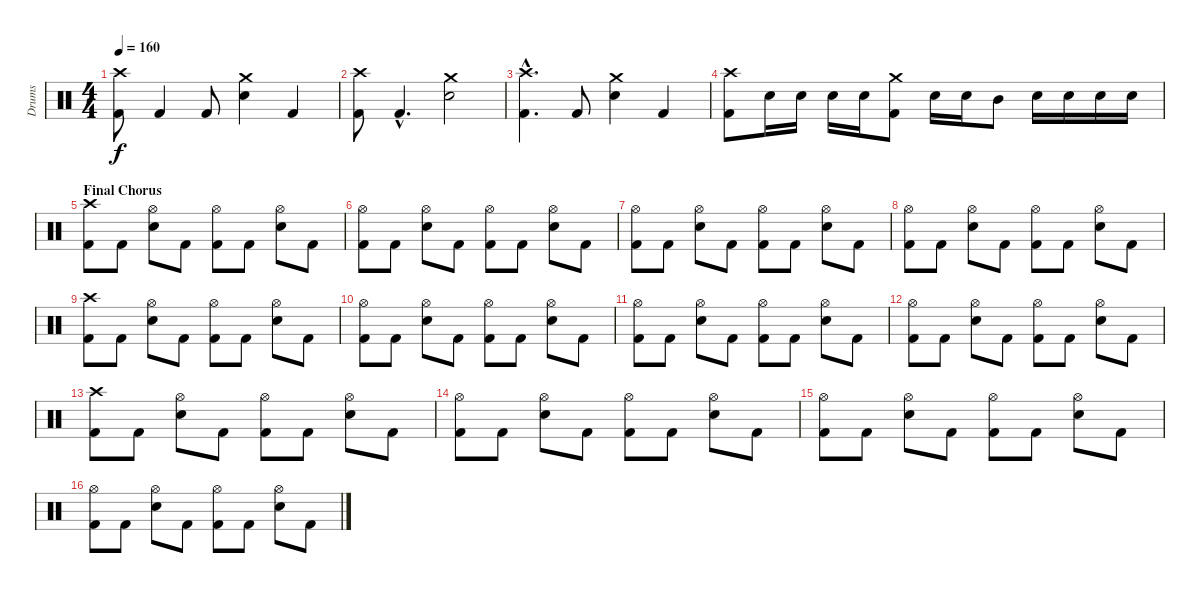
\track ("Drums" "Drums") {instrument percussion}
\staff {score}
\articulation defaults
\ts (4 4)
\tempo 160
\clef neutral
\ks c
("Kick (hit) 2" "Crash high (hit)").8{dy f} "Kick (hit) 2".4 "Kick (hit) 2".8 ("Electric Snare (hit)" "Crash medium (hit)").4 "Kick (hit) 2".4 |
("Kick (hit) 2" "Crash high (hit)").8 "Kick (hit) 2"{hac}.4{d} ("Electric Snare (hit)" "Crash medium (hit)").2 |
("Kick (hit) 2"{hac} "Crash high (hit)"{hac}).4{d} "Kick (hit) 2".8 ("Electric Snare (hit)" "Crash medium (hit)").4 "Kick (hit) 2".4 |
("Kick (hit) 2" "Crash high (hit)").8 "Electric Snare (hit)".16 "Electric Snare (hit)".16 "Electric Snare (hit)".16 "Electric Snare (hit)".16 ("Kick (hit) 2" "Crash medium (hit)").8 "Electric Snare (hit)".16 "Electric Snare (hit)".16 "Mid Tom (hit)".8 "Electric Snare (hit)".16 "Electric Snare (hit)".16 "Electric Snare (hit)".16 "Electric Snare (hit)".16 |
\section ("" "Final Chorus")
("Kick (hit) 2" "Crash high (hit)").8 "Kick (hit) 2".8 ("Electric Snare (hit)" "Hi-Hat (open)").8 "Kick (hit) 2".8 ("Kick (hit) 2" "Hi-Hat (open)").8 "Kick (hit) 2".8 ("Electric Snare (hit)" "Hi-Hat (open)").8 "Kick (hit) 2".8 |
("Kick (hit) 2" "Hi-Hat (open)").8 "Kick (hit) 2".8 ("Electric Snare (hit)" "Hi-Hat (open)").8 "Kick (hit) 2".8 ("Kick (hit) 2" "Hi-Hat (open)").8 "Kick (hit) 2".8 ("Electric Snare (hit)" "Hi-Hat (open)").8 "Kick (hit) 2".8 |
("Kick (hit) 2" "Hi-Hat (open)").8 "Kick (hit) 2".8 ("Electric Snare (hit)" "Hi-Hat (open)").8 "Kick (hit) 2".8 ("Kick (hit) 2" "Hi-Hat (open)").8 "Kick (hit) 2".8 ("Electric Snare (hit)" "Hi-Hat (open)").8 "Kick (hit) 2".8 |
("Kick (hit) 2" "Hi-Hat (open)").8 "Kick (hit) 2".8 ("Electric Snare (hit)" "Hi-Hat (open)").8 "Kick (hit) 2".8 ("Kick (hit) 2" "Hi-Hat (open)").8 "Kick (hit) 2".8 ("Electric Snare (hit)" "Hi-Hat (open)").8 "Kick (hit) 2".8 |
("Kick (hit) 2" "Crash high (hit)").8 "Kick (hit) 2".8 ("Electric Snare (hit)" "Hi-Hat (open)").8 "Kick (hit) 2".8 ("Kick (hit) 2" "Hi-Hat (open)").8 "Kick (hit) 2".8 ("Electric Snare (hit)" "Hi-Hat (open)").8 "Kick (hit) 2".8 |
("Kick (hit) 2" "Hi-Hat (open)").8 "Kick (hit) 2".8 ("Electric Snare (hit)" "Hi-Hat (open)").8 "Kick (hit) 2".8 ("Kick (hit) 2" "Hi-Hat (open)").8 "Kick (hit) 2".8 ("Electric Snare (hit)" "Hi-Hat (open)").8 "Kick (hit) 2".8 |
("Kick (hit) 2" "Hi-Hat (open)").8 "Kick (hit) 2".8 ("Electric Snare (hit)" "Hi-Hat (open)").8 "Kick (hit) 2".8 ("Kick (hit) 2" "Hi-Hat (open)").8 "Kick (hit) 2".8 ("Electric Snare (hit)" "Hi-Hat (open)").8 "Kick (hit) 2".8 |
("Kick (hit) 2" "Hi-Hat (open)").8 "Kick (hit) 2".8 ("Electric Snare (hit)" "Hi-Hat (open)").8 "Kick (hit) 2".8 ("Kick (hit) 2" "Hi-Hat (open)").8 "Kick (hit) 2".8 ("Electric Snare (hit)" "Hi-Hat (open)").8 "Kick (hit) 2".8 |
("Kick (hit) 2" "Crash high (hit)").8 "Kick (hit) 2".8 ("Electric Snare (hit)" "Hi-Hat (open)").8 "Kick (hit) 2".8 ("Kick (hit) 2" "Hi-Hat (open)").8 "Kick (hit) 2".8 ("Electric Snare (hit)" "Hi-Hat (open)").8 "Kick (hit) 2".8 |
("Kick (hit) 2" "Hi-Hat (open)").8 "Kick (hit) 2".8 ("Electric Snare (hit)" "Hi-Hat (open)").8 "Kick (hit) 2".8 ("Kick (hit) 2" "Hi-Hat (open)").8 "Kick (hit) 2".8 ("Electric Snare (hit)" "Hi-Hat (open)").8 "Kick (hit) 2".8 |
("Kick (hit) 2" "Hi-Hat (open)").8 "Kick (hit) 2".8 ("Electric Snare (hit)" "Hi-Hat (open)").8 "Kick (hit) 2".8 ("Kick (hit) 2" "Hi-Hat (open)").8 "Kick (hit) 2".8 ("Electric Snare (hit)" "Hi-Hat (open)").8 "Kick (hit) 2".8 |
("Kick (hit) 2" "Hi-Hat (open)").8 "Kick (hit) 2".8 ("Electric Snare (hit)" "Hi-Hat (open)").8 "Kick (hit) 2".8 ("Kick (hit) 2" "Hi-Hat (open)").8 "Kick (hit) 2".8 ("Electric Snare (hit)" "Hi-Hat (open)").8 "Kick (hit) 2".8
